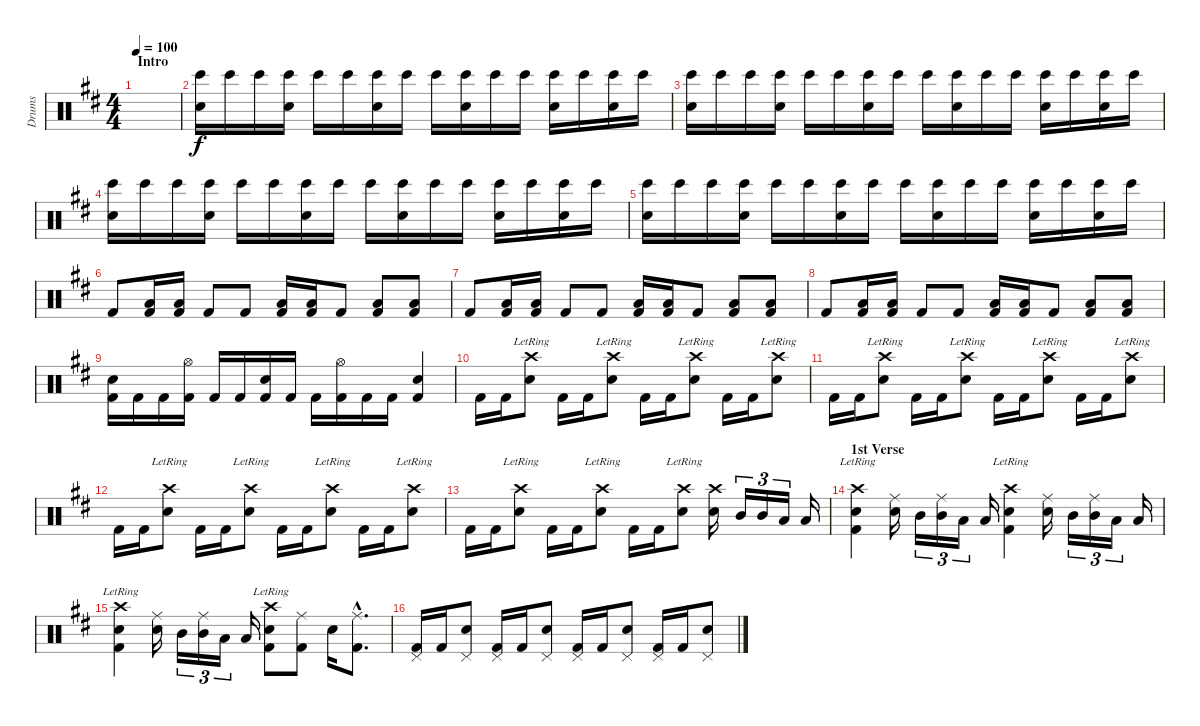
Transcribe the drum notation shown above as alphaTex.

\track ("Drums" "Drums") {instrument percussion}
\staff {score}
\articulation defaults
\ts (4 4)
\section ("" "Intro")
\tempo 100
\clef neutral
\ks d
|
("Bongo High (hit)" "Hand Clap (hit)").16 "Bongo High (hit)".16 "Bongo High (hit)".16 ("Bongo High (hit)" "Hand Clap (hit)").16 "Bongo High (hit)".16 "Bongo High (hit)".16 ("Bongo High (hit)" "Hand Clap (hit)").16 "Bongo High (hit)".16 "Bongo High (hit)".16 ("Bongo High (hit)" "Hand Clap (hit)").16 "Bongo High (hit)".16 "Bongo High (hit)".16 ("Bongo High (hit)" "Hand Clap (hit)").16 "Bongo High (hit)".16 ("Bongo High (hit)" "Hand Clap (hit)").16 "Bongo High (hit)".16 |
("Bongo High (hit)" "Hand Clap (hit)").16 "Bongo High (hit)".16 "Bongo High (hit)".16 ("Bongo High (hit)" "Hand Clap (hit)").16 "Bongo High (hit)".16 "Bongo High (hit)".16 ("Bongo High (hit)" "Hand Clap (hit)").16 "Bongo High (hit)".16 "Bongo High (hit)".16 ("Bongo High (hit)" "Hand Clap (hit)").16 "Bongo High (hit)".16 "Bongo High (hit)".16 ("Bongo High (hit)" "Hand Clap (hit)").16 "Bongo High (hit)".16 ("Bongo High (hit)" "Hand Clap (hit)").16 "Bongo High (hit)".16 |
("Bongo High (hit)" "Hand Clap (hit)").16 "Bongo High (hit)".16 "Bongo High (hit)".16 ("Bongo High (hit)" "Hand Clap (hit)").16 "Bongo High (hit)".16 "Bongo High (hit)".16 ("Bongo High (hit)" "Hand Clap (hit)").16 "Bongo High (hit)".16 "Bongo High (hit)".16 ("Bongo High (hit)" "Hand Clap (hit)").16 "Bongo High (hit)".16 "Bongo High (hit)".16 ("Bongo High (hit)" "Hand Clap (hit)").16 "Bongo High (hit)".16 ("Bongo High (hit)" "Hand Clap (hit)").16 "Bongo High (hit)".16 |
("Bongo High (hit)" "Hand Clap (hit)").16 "Bongo High (hit)".16 "Bongo High (hit)".16 ("Bongo High (hit)" "Hand Clap (hit)").16 "Bongo High (hit)".16 "Bongo High (hit)".16 ("Bongo High (hit)" "Hand Clap (hit)").16 "Bongo High (hit)".16 "Bongo High (hit)".16 ("Bongo High (hit)" "Hand Clap (hit)").16 "Bongo High (hit)".16 "Bongo High (hit)".16 ("Bongo High (hit)" "Hand Clap (hit)").16 "Bongo High (hit)".16 ("Bongo High (hit)" "Hand Clap (hit)").16 "Bongo High (hit)".16 |
"Kick (hit) 2".8 ("Kick (hit) 2" "Low Tom (hit)").16 ("Kick (hit) 2" "Low Tom (hit)").16 "Kick (hit) 2".8 "Kick (hit) 2".8 ("Kick (hit) 2" "Low Tom (hit)").16 ("Kick (hit) 2" "Low Tom (hit)").16 "Kick (hit) 2".8 ("Kick (hit) 2" "Low Tom (hit)").8 ("Kick (hit) 2" "Low Tom (hit)").8 |
"Kick (hit) 2".8 ("Kick (hit) 2" "Low Tom (hit)").16 ("Kick (hit) 2" "Low Tom (hit)").16 "Kick (hit) 2".8 "Kick (hit) 2".8 ("Kick (hit) 2" "Low Tom (hit)").16 ("Kick (hit) 2" "Low Tom (hit)").16 "Kick (hit) 2".8 ("Kick (hit) 2" "Low Tom (hit)").8 ("Kick (hit) 2" "Low Tom (hit)").8 |
"Kick (hit) 2".8 ("Kick (hit) 2" "Low Tom (hit)").16 ("Kick (hit) 2" "Low Tom (hit)").16 "Kick (hit) 2".8 "Kick (hit) 2".8 ("Kick (hit) 2" "Low Tom (hit)").16 ("Kick (hit) 2" "Low Tom (hit)").16 "Kick (hit) 2".8 ("Kick (hit) 2" "Low Tom (hit)").8 ("Kick (hit) 2" "Low Tom (hit)").8 |
("Kick (hit) 2" "Electric Snare (hit)").16 "Kick (hit) 2".16 "Kick (hit) 2".16 ("Kick (hit) 2" "Hi-Hat (open)").16 "Kick (hit) 2".16 "Kick (hit) 2".16 ("Kick (hit) 2" "Electric Snare (hit)").16 "Kick (hit) 2".16 "Kick (hit) 2".16 ("Kick (hit) 2" "Hi-Hat (open)").16 "Kick (hit) 2".16 "Kick (hit) 2".16 ("Kick (hit) 2" "Electric Snare (hit)").4 |
"Kick (hit) 2".16 "Kick (hit) 2".16 ("Electric Snare (hit)" "Crash high (hit)"{lr}).8 "Kick (hit) 2".16 "Kick (hit) 2".16 ("Electric Snare (hit)" "Crash high (hit)"{lr}).8 "Kick (hit) 2".16 "Kick (hit) 2".16 ("Electric Snare (hit)" "Crash high (hit)"{lr}).8 "Kick (hit) 2".16 "Kick (hit) 2".16 ("Electric Snare (hit)" "Crash high (hit)"{lr}).8 |
"Kick (hit) 2".16 "Kick (hit) 2".16 ("Electric Snare (hit)" "Crash high (hit)"{lr}).8 "Kick (hit) 2".16 "Kick (hit) 2".16 ("Electric Snare (hit)" "Crash high (hit)"{lr}).8 "Kick (hit) 2".16 "Kick (hit) 2".16 ("Electric Snare (hit)" "Crash high (hit)"{lr}).8 "Kick (hit) 2".16 "Kick (hit) 2".16 ("Electric Snare (hit)" "Crash high (hit)"{lr}).8 |
"Kick (hit) 2".16 "Kick (hit) 2".16 ("Electric Snare (hit)" "Crash high (hit)"{lr}).8 "Kick (hit) 2".16 "Kick (hit) 2".16 ("Electric Snare (hit)" "Crash high (hit)"{lr}).8 "Kick (hit) 2".16 "Kick (hit) 2".16 ("Electric Snare (hit)" "Crash high (hit)"{lr}).8 "Kick (hit) 2".16 "Kick (hit) 2".16 ("Electric Snare (hit)" "Crash high (hit)"{lr}).8 |
"Kick (hit) 2".16 "Kick (hit) 2".16 ("Electric Snare (hit)" "Crash high (hit)"{lr}).8 "Kick (hit) 2".16 "Kick (hit) 2".16 ("Electric Snare (hit)" "Crash high (hit)"{lr}).8 "Kick (hit) 2".16 "Kick (hit) 2".16 ("Electric Snare (hit)" "Crash high (hit)"{lr}).8 ("Electric Snare (hit)" "Crash high (hit)").16 "Mid Tom (hit)".16{tu (3 2)} "Mid Tom (hit)".16{tu (3 2)} "Low Tom (hit)".16{tu (3 2)} "Low Tom (hit)".16 |
\section ("" "1st Verse")
("Kick (hit) 2" "Crash high (hit)"{lr} "Electric Snare (hit)").4 ("Electric Snare (hit)" "Ride (middle)").16 "Mid Tom (hit)".16{tu (3 2)} ("Mid Tom (hit)" "Ride (middle)").16{tu (3 2)} "Low Tom (hit)".16{tu (3 2)} "Low Tom (hit)".16 ("Kick (hit) 2" "Crash high (hit)"{lr} "Electric Snare (hit)").4 ("Electric Snare (hit)" "Ride (middle)").16 "Mid Tom (hit)".16{tu (3 2)} ("Mid Tom (hit)" "Ride (middle)").16{tu (3 2)} "Low Tom (hit)".16{tu (3 2)} "Low Tom (hit)".16 |
("Kick (hit) 2" "Crash high (hit)"{lr} "Electric Snare (hit)").4 ("Electric Snare (hit)" "Ride (middle)").16 "Mid Tom (hit)".16{tu (3 2)} ("Mid Tom (hit)" "Ride (middle)").16{tu (3 2)} "Low Tom (hit)".16{tu (3 2)} "Low Tom (hit)".16 ("Kick (hit) 2" "Crash high (hit)"{lr} "Electric Snare (hit)").8 ("Kick (hit) 2" "Ride (middle)").8 "Electric Snare (hit)".16 ("Kick (hit) 2"{hac} "Ride (middle)"{hac}).8{d} |
("Kick (hit) 2" "Pedal Hi-Hat (hit)").16 "Kick (hit) 2".16 ("Electric Snare (hit)" "Pedal Hi-Hat (hit)").8 ("Kick (hit) 2" "Pedal Hi-Hat (hit)").16 "Kick (hit) 2".16 ("Electric Snare (hit)" "Pedal Hi-Hat (hit)").8 ("Kick (hit) 2" "Pedal Hi-Hat (hit)").16 "Kick (hit) 2".16 ("Electric Snare (hit)" "Pedal Hi-Hat (hit)").8 ("Kick (hit) 2" "Pedal Hi-Hat (hit)").16 "Kick (hit) 2".16 ("Electric Snare (hit)" "Pedal Hi-Hat (hit)").8
